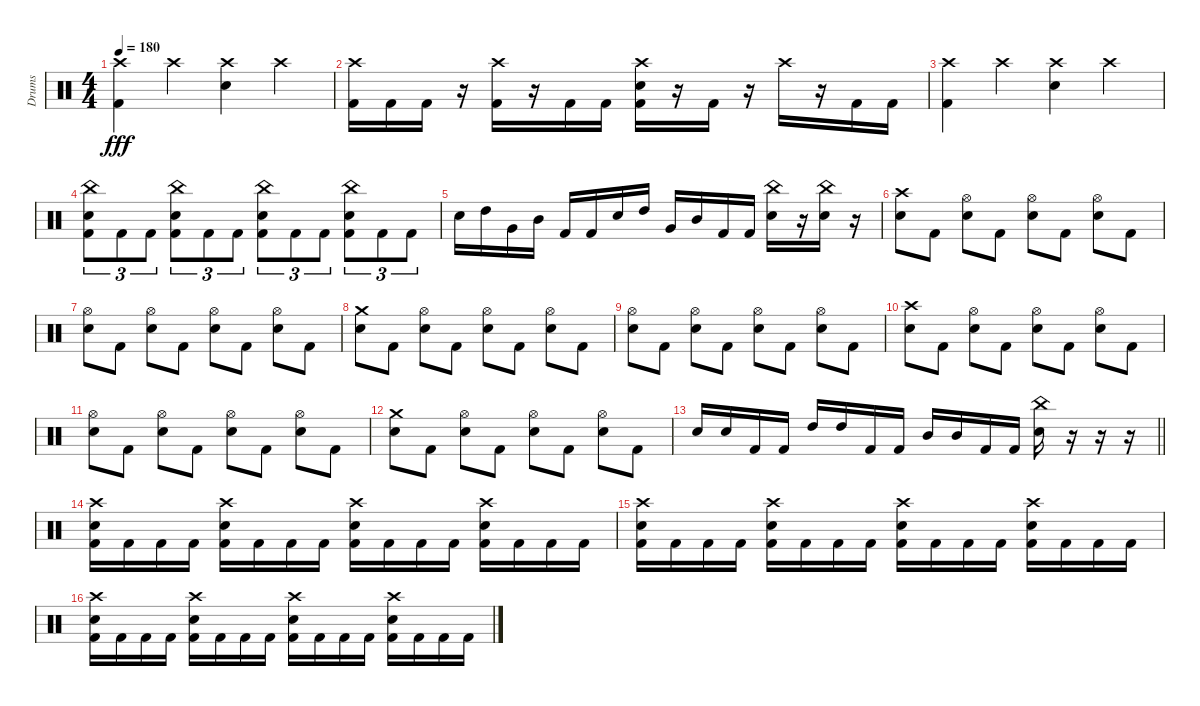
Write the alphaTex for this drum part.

\track ("Drums" "Drums") {instrument percussion}
\staff {score}
\articulation defaults
\ts (4 4)
\tempo 180
\clef neutral
\ks c
("Crash high (hit)" "Kick (hit) 2").4{dy fff} "Crash high (hit)".4 ("Crash high (hit)" "Electric Snare (hit)").4 "Crash high (hit)".4 |
("Crash high (hit)" "Kick (hit) 2").16 "Kick (hit) 2".16 "Kick (hit) 2".16 r.16 ("Crash high (hit)" "Kick (hit) 2").16 r.16 "Kick (hit) 2".16 "Kick (hit) 2".16 ("Crash high (hit)" "Electric Snare (hit)" "Kick (hit) 2").16 r.16 "Kick (hit) 2".16 r.16 "Crash high (hit)".16 r.16 "Kick (hit) 2".16 "Kick (hit) 2".16 |
("Crash high (hit)" "Kick (hit) 2").4 "Crash high (hit)".4 ("Crash high (hit)" "Electric Snare (hit)").4 "Crash high (hit)".4 |
("China (hit)" "Electric Snare (hit)" "Kick (hit) 2").8{tu (3 2)} "Kick (hit) 2".8{tu (3 2)} "Kick (hit) 2".8{tu (3 2)} ("China (hit)" "Electric Snare (hit)" "Kick (hit) 2").8{tu (3 2)} "Kick (hit) 2".8{tu (3 2)} "Kick (hit) 2".8{tu (3 2)} ("China (hit)" "Electric Snare (hit)" "Kick (hit) 2").8{tu (3 2)} "Kick (hit) 2".8{tu (3 2)} "Kick (hit) 2".8{tu (3 2)} ("China (hit)" "Electric Snare (hit)" "Kick (hit) 2").8{tu (3 2)} "Kick (hit) 2".8{tu (3 2)} "Kick (hit) 2".8{tu (3 2)} |
"Electric Snare (hit)".16 "High Tom (hit)".16 "Very Low Tom (hit)".16 "Mid Tom (hit)".16 "Kick (hit) 2".16 "Kick (hit) 2".16 "Electric Snare (hit)".16 "High Tom (hit)".16 "Very Low Tom (hit)".16 "Mid Tom (hit)".16 "Kick (hit) 2".16 "Kick (hit) 2".16 ("China (hit)" "Electric Snare (hit)").16 r.16 ("China (hit)" "Electric Snare (hit)").16 r.16 |
("Crash high (hit)" "Electric Snare (hit)").8 "Kick (hit) 2".8 ("Hi-Hat (open)" "Electric Snare (hit)").8 "Kick (hit) 2".8 ("Hi-Hat (open)" "Electric Snare (hit)").8 "Kick (hit) 2".8 ("Hi-Hat (open)" "Electric Snare (hit)").8 "Kick (hit) 2".8 |
("Hi-Hat (open)" "Electric Snare (hit)").8 "Kick (hit) 2".8 ("Hi-Hat (open)" "Electric Snare (hit)").8 "Kick (hit) 2".8 ("Hi-Hat (open)" "Electric Snare (hit)").8 "Kick (hit) 2".8 ("Hi-Hat (open)" "Electric Snare (hit)").8 "Kick (hit) 2".8 |
("Crash medium (hit)" "Electric Snare (hit)").8 "Kick (hit) 2".8 ("Hi-Hat (open)" "Electric Snare (hit)").8 "Kick (hit) 2".8 ("Hi-Hat (open)" "Electric Snare (hit)").8 "Kick (hit) 2".8 ("Hi-Hat (open)" "Electric Snare (hit)").8 "Kick (hit) 2".8 |
("Hi-Hat (open)" "Electric Snare (hit)").8 "Kick (hit) 2".8 ("Hi-Hat (open)" "Electric Snare (hit)").8 "Kick (hit) 2".8 ("Hi-Hat (open)" "Electric Snare (hit)").8 "Kick (hit) 2".8 ("Hi-Hat (open)" "Electric Snare (hit)").8 "Kick (hit) 2".8 |
("Crash high (hit)" "Electric Snare (hit)").8 "Kick (hit) 2".8 ("Hi-Hat (open)" "Electric Snare (hit)").8 "Kick (hit) 2".8 ("Hi-Hat (open)" "Electric Snare (hit)").8 "Kick (hit) 2".8 ("Hi-Hat (open)" "Electric Snare (hit)").8 "Kick (hit) 2".8 |
("Hi-Hat (open)" "Electric Snare (hit)").8 "Kick (hit) 2".8 ("Hi-Hat (open)" "Electric Snare (hit)").8 "Kick (hit) 2".8 ("Hi-Hat (open)" "Electric Snare (hit)").8 "Kick (hit) 2".8 ("Hi-Hat (open)" "Electric Snare (hit)").8 "Kick (hit) 2".8 |
("Crash medium (hit)" "Electric Snare (hit)").8 "Kick (hit) 2".8 ("Hi-Hat (open)" "Electric Snare (hit)").8 "Kick (hit) 2".8 ("Hi-Hat (open)" "Electric Snare (hit)").8 "Kick (hit) 2".8 ("Hi-Hat (open)" "Electric Snare (hit)").8 "Kick (hit) 2".8 |
\barLineRight lightlight "Electric Snare (hit)".16 "Electric Snare (hit)".16 "Kick (hit) 2".16 "Kick (hit) 2".16 "High Tom (hit)".16 "High Tom (hit)".16 "Kick (hit) 2".16 "Kick (hit) 2".16 "Mid Tom (hit)".16 "Mid Tom (hit)".16 "Kick (hit) 2".16 "Kick (hit) 2".16
("China (hit)" "Electric Snare (hit)").16 r.16 r.16 r.16 |
("Crash high (hit)" "Electric Snare (hit)" "Kick (hit) 2").16 "Kick (hit) 2".16 "Kick (hit) 2".16 "Kick (hit) 2".16 ("Crash high (hit)" "Electric Snare (hit)" "Kick (hit) 2").16 "Kick (hit) 2".16 "Kick (hit) 2".16 "Kick (hit) 2".16 ("Crash high (hit)" "Electric Snare (hit)" "Kick (hit) 2").16 "Kick (hit) 2".16 "Kick (hit) 2".16 "Kick (hit) 2".16 ("Crash high (hit)" "Electric Snare (hit)" "Kick (hit) 2").16 "Kick (hit) 2".16 "Kick (hit) 2".16 "Kick (hit) 2".16 |
("Crash high (hit)" "Electric Snare (hit)" "Kick (hit) 2").16 "Kick (hit) 2".16 "Kick (hit) 2".16 "Kick (hit) 2".16 ("Crash high (hit)" "Electric Snare (hit)" "Kick (hit) 2").16 "Kick (hit) 2".16 "Kick (hit) 2".16 "Kick (hit) 2".16 ("Crash high (hit)" "Electric Snare (hit)" "Kick (hit) 2").16 "Kick (hit) 2".16 "Kick (hit) 2".16 "Kick (hit) 2".16 ("Crash high (hit)" "Electric Snare (hit)" "Kick (hit) 2").16 "Kick (hit) 2".16 "Kick (hit) 2".16 "Kick (hit) 2".16 |
("Crash high (hit)" "Electric Snare (hit)" "Kick (hit) 2").16 "Kick (hit) 2".16 "Kick (hit) 2".16 "Kick (hit) 2".16 ("Crash high (hit)" "Electric Snare (hit)" "Kick (hit) 2").16 "Kick (hit) 2".16 "Kick (hit) 2".16 "Kick (hit) 2".16 ("Crash high (hit)" "Electric Snare (hit)" "Kick (hit) 2").16 "Kick (hit) 2".16 "Kick (hit) 2".16 "Kick (hit) 2".16 ("Crash high (hit)" "Electric Snare (hit)" "Kick (hit) 2").16 "Kick (hit) 2".16 "Kick (hit) 2".16 "Kick (hit) 2".16
